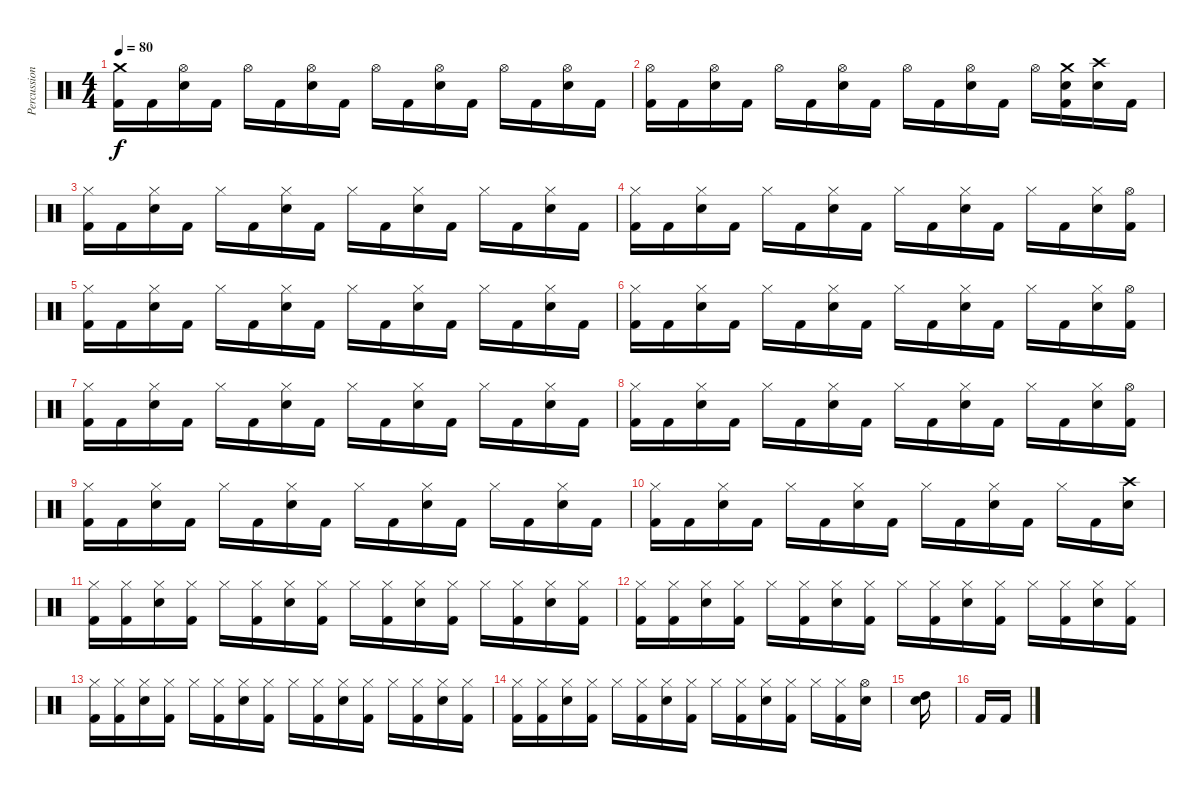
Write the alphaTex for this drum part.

\track ("Percussion" "Percussion") {instrument percussion}
\staff {score}
\articulation defaults
\ts (4 4)
\tempo 80
\clef neutral
\ks c
("Crash medium (hit)" "Kick (hit) 2").16{dy f} "Kick (hit) 2".16 ("Hi-Hat (open)" "Electric Snare (hit)").16 "Kick (hit) 2".16 "Hi-Hat (open)".16 "Kick (hit) 2".16 ("Hi-Hat (open)" "Electric Snare (hit)").16 "Kick (hit) 2".16 "Hi-Hat (open)".16 "Kick (hit) 2".16 ("Hi-Hat (open)" "Electric Snare (hit)").16 "Kick (hit) 2".16 "Hi-Hat (open)".16 "Kick (hit) 2".16 ("Hi-Hat (open)" "Electric Snare (hit)").16 "Kick (hit) 2".16 |
("Hi-Hat (open)" "Kick (hit) 2").16 "Kick (hit) 2".16 ("Hi-Hat (open)" "Electric Snare (hit)").16 "Kick (hit) 2".16 "Hi-Hat (open)".16 "Kick (hit) 2".16 ("Hi-Hat (open)" "Electric Snare (hit)").16 "Kick (hit) 2".16 "Hi-Hat (open)".16 "Kick (hit) 2".16 ("Hi-Hat (open)" "Electric Snare (hit)").16 "Kick (hit) 2".16 "Hi-Hat (open)".16 ("Crash medium (hit)" "Electric Snare (hit)" "Kick (hit) 2").16 ("Crash high (hit)" "Electric Snare (hit)").16 "Kick (hit) 2".16 |
("Hi-Hat (closed)" "Kick (hit) 2").16 "Kick (hit) 2".16 ("Hi-Hat (closed)" "Electric Snare (hit)").16 "Kick (hit) 2".16 "Hi-Hat (closed)".16 "Kick (hit) 2".16 ("Hi-Hat (closed)" "Electric Snare (hit)").16 "Kick (hit) 2".16 "Hi-Hat (closed)".16 "Kick (hit) 2".16 ("Hi-Hat (closed)" "Electric Snare (hit)").16 "Kick (hit) 2".16 "Hi-Hat (closed)".16 "Kick (hit) 2".16 ("Hi-Hat (closed)" "Electric Snare (hit)").16 "Kick (hit) 2".16 |
("Hi-Hat (closed)" "Kick (hit) 2").16 "Kick (hit) 2".16 ("Hi-Hat (closed)" "Electric Snare (hit)").16 "Kick (hit) 2".16 "Hi-Hat (closed)".16 "Kick (hit) 2".16 ("Hi-Hat (closed)" "Electric Snare (hit)").16 "Kick (hit) 2".16 "Hi-Hat (closed)".16 "Kick (hit) 2".16 ("Hi-Hat (closed)" "Electric Snare (hit)").16 "Kick (hit) 2".16 "Hi-Hat (closed)".16 "Kick (hit) 2".16 ("Hi-Hat (closed)" "Electric Snare (hit)").16 ("Hi-Hat (open)" "Kick (hit) 2").16 |
("Hi-Hat (closed)" "Kick (hit) 2").16 "Kick (hit) 2".16 ("Hi-Hat (closed)" "Electric Snare (hit)").16 "Kick (hit) 2".16 "Hi-Hat (closed)".16 "Kick (hit) 2".16 ("Hi-Hat (closed)" "Electric Snare (hit)").16 "Kick (hit) 2".16 "Hi-Hat (closed)".16 "Kick (hit) 2".16 ("Hi-Hat (closed)" "Electric Snare (hit)").16 "Kick (hit) 2".16 "Hi-Hat (closed)".16 "Kick (hit) 2".16 ("Hi-Hat (closed)" "Electric Snare (hit)").16 "Kick (hit) 2".16 |
("Hi-Hat (closed)" "Kick (hit) 2").16 "Kick (hit) 2".16 ("Hi-Hat (closed)" "Electric Snare (hit)").16 "Kick (hit) 2".16 "Hi-Hat (closed)".16 "Kick (hit) 2".16 ("Hi-Hat (closed)" "Electric Snare (hit)").16 "Kick (hit) 2".16 "Hi-Hat (closed)".16 "Kick (hit) 2".16 ("Hi-Hat (closed)" "Electric Snare (hit)").16 "Kick (hit) 2".16 "Hi-Hat (closed)".16 "Kick (hit) 2".16 ("Hi-Hat (closed)" "Electric Snare (hit)").16 ("Hi-Hat (open)" "Kick (hit) 2").16 |
("Hi-Hat (closed)" "Kick (hit) 2").16 "Kick (hit) 2".16 ("Hi-Hat (closed)" "Electric Snare (hit)").16 "Kick (hit) 2".16 "Hi-Hat (closed)".16 "Kick (hit) 2".16 ("Hi-Hat (closed)" "Electric Snare (hit)").16 "Kick (hit) 2".16 "Hi-Hat (closed)".16 "Kick (hit) 2".16 ("Hi-Hat (closed)" "Electric Snare (hit)").16 "Kick (hit) 2".16 "Hi-Hat (closed)".16 "Kick (hit) 2".16 ("Hi-Hat (closed)" "Electric Snare (hit)").16 "Kick (hit) 2".16 |
("Hi-Hat (closed)" "Kick (hit) 2").16 "Kick (hit) 2".16 ("Hi-Hat (closed)" "Electric Snare (hit)").16 "Kick (hit) 2".16 "Hi-Hat (closed)".16 "Kick (hit) 2".16 ("Hi-Hat (closed)" "Electric Snare (hit)").16 "Kick (hit) 2".16 "Hi-Hat (closed)".16 "Kick (hit) 2".16 ("Hi-Hat (closed)" "Electric Snare (hit)").16 "Kick (hit) 2".16 "Hi-Hat (closed)".16 "Kick (hit) 2".16 ("Hi-Hat (closed)" "Electric Snare (hit)").16 ("Hi-Hat (open)" "Kick (hit) 2").16 |
("Hi-Hat (closed)" "Kick (hit) 2").16 "Kick (hit) 2".16 ("Hi-Hat (closed)" "Electric Snare (hit)").16 "Kick (hit) 2".16 "Hi-Hat (closed)".16 "Kick (hit) 2".16 ("Hi-Hat (closed)" "Electric Snare (hit)").16 "Kick (hit) 2".16 "Hi-Hat (closed)".16 "Kick (hit) 2".16 ("Hi-Hat (closed)" "Electric Snare (hit)").16 "Kick (hit) 2".16 "Hi-Hat (closed)".16 "Kick (hit) 2".16 ("Hi-Hat (closed)" "Electric Snare (hit)").16 "Kick (hit) 2".16 |
("Hi-Hat (closed)" "Kick (hit) 2").16 "Kick (hit) 2".16 ("Hi-Hat (closed)" "Electric Snare (hit)").16 "Kick (hit) 2".16 "Hi-Hat (closed)".16 "Kick (hit) 2".16 ("Hi-Hat (closed)" "Electric Snare (hit)").16 "Kick (hit) 2".16 "Hi-Hat (closed)".16 "Kick (hit) 2".16 ("Hi-Hat (closed)" "Electric Snare (hit)").16 "Kick (hit) 2".16 "Hi-Hat (closed)".16 "Kick (hit) 2".16 ("Crash high (hit)" "Electric Snare (hit)").16 |
("Hi-Hat (closed)" "Kick (hit) 2").16 ("Hi-Hat (closed)" "Kick (hit) 2").16 ("Hi-Hat (closed)" "Electric Snare (hit)").16 ("Hi-Hat (closed)" "Kick (hit) 2").16 "Hi-Hat (closed)".16 ("Hi-Hat (closed)" "Kick (hit) 2").16 ("Hi-Hat (closed)" "Electric Snare (hit)").16 ("Hi-Hat (closed)" "Kick (hit) 2").16 "Hi-Hat (closed)".16 ("Hi-Hat (closed)" "Kick (hit) 2").16 ("Hi-Hat (closed)" "Electric Snare (hit)").16 ("Hi-Hat (closed)" "Kick (hit) 2").16 "Hi-Hat (closed)".16 ("Hi-Hat (closed)" "Kick (hit) 2").16 ("Hi-Hat (closed)" "Electric Snare (hit)").16 ("Hi-Hat (closed)" "Kick (hit) 2").16 |
("Hi-Hat (closed)" "Kick (hit) 2").16 ("Hi-Hat (closed)" "Kick (hit) 2").16 ("Hi-Hat (closed)" "Electric Snare (hit)").16 ("Hi-Hat (closed)" "Kick (hit) 2").16 "Hi-Hat (closed)".16 ("Hi-Hat (closed)" "Kick (hit) 2").16 ("Hi-Hat (closed)" "Electric Snare (hit)").16 ("Hi-Hat (closed)" "Kick (hit) 2").16 "Hi-Hat (closed)".16 ("Hi-Hat (closed)" "Kick (hit) 2").16 ("Hi-Hat (closed)" "Electric Snare (hit)").16 ("Hi-Hat (closed)" "Kick (hit) 2").16 "Hi-Hat (closed)".16 ("Hi-Hat (closed)" "Kick (hit) 2").16 ("Hi-Hat (closed)" "Electric Snare (hit)").16 ("Hi-Hat (closed)" "Kick (hit) 2").16 |
("Hi-Hat (closed)" "Kick (hit) 2").16 ("Hi-Hat (closed)" "Kick (hit) 2").16 ("Hi-Hat (closed)" "Electric Snare (hit)").16 ("Hi-Hat (closed)" "Kick (hit) 2").16 "Hi-Hat (closed)".16 ("Hi-Hat (closed)" "Kick (hit) 2").16 ("Hi-Hat (closed)" "Electric Snare (hit)").16 ("Hi-Hat (closed)" "Kick (hit) 2").16 "Hi-Hat (closed)".16 ("Hi-Hat (closed)" "Kick (hit) 2").16 ("Hi-Hat (closed)" "Electric Snare (hit)").16 ("Hi-Hat (closed)" "Kick (hit) 2").16 "Hi-Hat (closed)".16 ("Hi-Hat (closed)" "Kick (hit) 2").16 ("Hi-Hat (closed)" "Electric Snare (hit)").16 ("Hi-Hat (closed)" "Kick (hit) 2").16 |
("Hi-Hat (closed)" "Kick (hit) 2").16 ("Hi-Hat (closed)" "Kick (hit) 2").16 ("Hi-Hat (closed)" "Electric Snare (hit)").16 ("Hi-Hat (closed)" "Kick (hit) 2").16 "Hi-Hat (closed)".16 ("Hi-Hat (closed)" "Kick (hit) 2").16 ("Hi-Hat (closed)" "Electric Snare (hit)").16 ("Hi-Hat (closed)" "Kick (hit) 2").16 "Hi-Hat (closed)".16 ("Hi-Hat (closed)" "Kick (hit) 2").16 ("Hi-Hat (closed)" "Electric Snare (hit)").16 ("Hi-Hat (closed)" "Kick (hit) 2").16 "Hi-Hat (closed)".16 ("Hi-Hat (closed)" "Kick (hit) 2").16 ("Hi-Hat (open)" "Electric Snare (hit)").16 |
("Electric Snare (hit)" "High Tom (hit)").16 |
"Kick (hit) 2".16 "Kick (hit) 2".16
